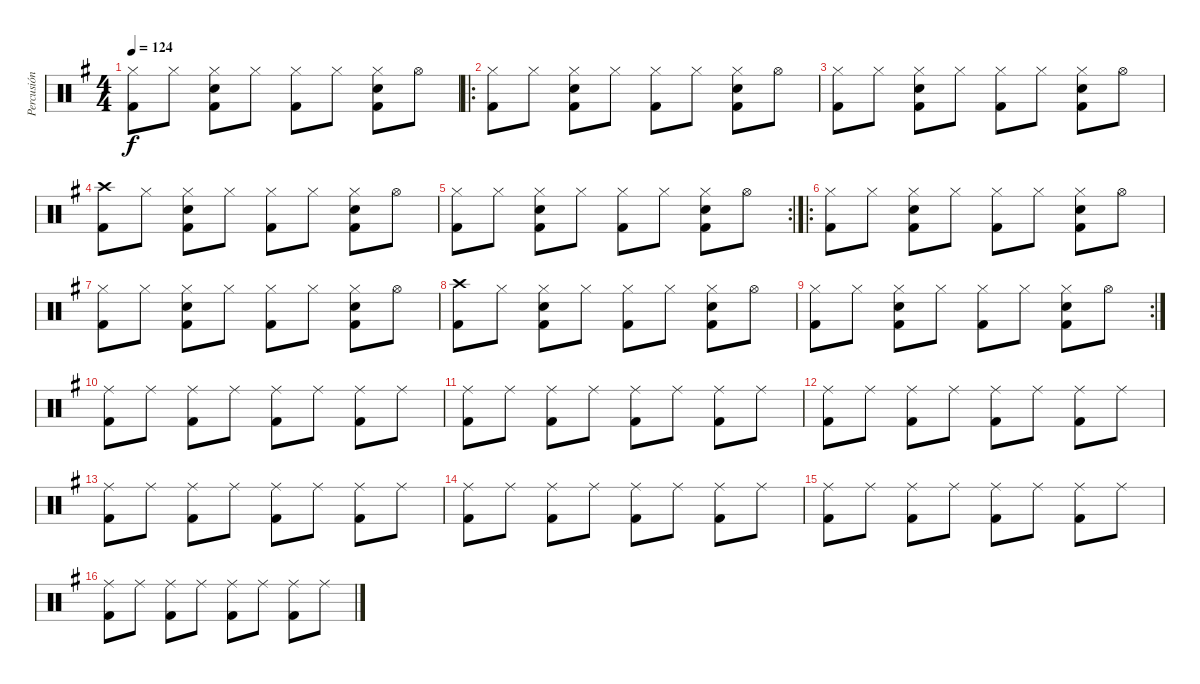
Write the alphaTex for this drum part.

\track ("Percusión" "Percusión") {instrument percussion}
\staff {score}
\articulation defaults
\ts (4 4)
\tempo 124
\clef neutral
\ks g
("Hi-Hat (closed)" "Kick (hit) 2").8{dy f} "Hi-Hat (closed)".8 ("Hi-Hat (closed)" "Electric Snare (hit)" "Kick (hit) 2").8 "Hi-Hat (closed)".8 ("Hi-Hat (closed)" "Kick (hit) 2").8 "Hi-Hat (closed)".8 ("Hi-Hat (closed)" "Electric Snare (hit)" "Kick (hit) 2").8 "Hi-Hat (open)".8 |
\ro
("Hi-Hat (closed)" "Kick (hit) 2").8 "Hi-Hat (closed)".8 ("Hi-Hat (closed)" "Electric Snare (hit)" "Kick (hit) 2").8 "Hi-Hat (closed)".8 ("Hi-Hat (closed)" "Kick (hit) 2").8 "Hi-Hat (closed)".8 ("Hi-Hat (closed)" "Electric Snare (hit)" "Kick (hit) 2").8 "Hi-Hat (open)".8 |
("Hi-Hat (closed)" "Kick (hit) 2").8 "Hi-Hat (closed)".8 ("Hi-Hat (closed)" "Electric Snare (hit)" "Kick (hit) 2").8 "Hi-Hat (closed)".8 ("Hi-Hat (closed)" "Kick (hit) 2").8 "Hi-Hat (closed)".8 ("Hi-Hat (closed)" "Electric Snare (hit)" "Kick (hit) 2").8 "Hi-Hat (open)".8 |
("Crash high (hit)" "Kick (hit) 2").8 "Hi-Hat (closed)".8 ("Hi-Hat (closed)" "Electric Snare (hit)" "Kick (hit) 2").8 "Hi-Hat (closed)".8 ("Hi-Hat (closed)" "Kick (hit) 2").8 "Hi-Hat (closed)".8 ("Hi-Hat (closed)" "Electric Snare (hit)" "Kick (hit) 2").8 "Hi-Hat (open)".8 |
\rc 2
("Hi-Hat (closed)" "Kick (hit) 2").8 "Hi-Hat (closed)".8 ("Hi-Hat (closed)" "Electric Snare (hit)" "Kick (hit) 2").8 "Hi-Hat (closed)".8 ("Hi-Hat (closed)" "Kick (hit) 2").8 "Hi-Hat (closed)".8 ("Hi-Hat (closed)" "Electric Snare (hit)" "Kick (hit) 2").8 "Hi-Hat (open)".8 |
\ro
("Hi-Hat (closed)" "Kick (hit) 2").8 "Hi-Hat (closed)".8 ("Hi-Hat (closed)" "Electric Snare (hit)" "Kick (hit) 2").8 "Hi-Hat (closed)".8 ("Hi-Hat (closed)" "Kick (hit) 2").8 "Hi-Hat (closed)".8 ("Hi-Hat (closed)" "Electric Snare (hit)" "Kick (hit) 2").8 "Hi-Hat (open)".8 |
("Hi-Hat (closed)" "Kick (hit) 2").8 "Hi-Hat (closed)".8 ("Hi-Hat (closed)" "Electric Snare (hit)" "Kick (hit) 2").8 "Hi-Hat (closed)".8 ("Hi-Hat (closed)" "Kick (hit) 2").8 "Hi-Hat (closed)".8 ("Hi-Hat (closed)" "Electric Snare (hit)" "Kick (hit) 2").8 "Hi-Hat (open)".8 |
("Crash high (hit)" "Kick (hit) 2").8 "Hi-Hat (closed)".8 ("Hi-Hat (closed)" "Electric Snare (hit)" "Kick (hit) 2").8 "Hi-Hat (closed)".8 ("Hi-Hat (closed)" "Kick (hit) 2").8 "Hi-Hat (closed)".8 ("Hi-Hat (closed)" "Electric Snare (hit)" "Kick (hit) 2").8 "Hi-Hat (open)".8 |
\rc 2
("Hi-Hat (closed)" "Kick (hit) 2").8 "Hi-Hat (closed)".8 ("Hi-Hat (closed)" "Electric Snare (hit)" "Kick (hit) 2").8 "Hi-Hat (closed)".8 ("Hi-Hat (closed)" "Kick (hit) 2").8 "Hi-Hat (closed)".8 ("Hi-Hat (closed)" "Electric Snare (hit)" "Kick (hit) 2").8 "Hi-Hat (open)".8 |
("Ride (middle)" "Kick (hit) 2").8 "Ride (middle)".8 ("Ride (middle)" "Kick (hit) 2").8 "Ride (middle)".8 ("Ride (middle)" "Kick (hit) 2").8 "Ride (middle)".8 ("Ride (middle)" "Kick (hit) 2").8 "Ride (middle)".8 |
("Ride (middle)" "Kick (hit) 2").8 "Ride (middle)".8 ("Ride (middle)" "Kick (hit) 2").8 "Ride (middle)".8 ("Ride (middle)" "Kick (hit) 2").8 "Ride (middle)".8 ("Ride (middle)" "Kick (hit) 2").8 "Ride (middle)".8 |
("Ride (middle)" "Kick (hit) 2").8 "Ride (middle)".8 ("Ride (middle)" "Kick (hit) 2").8 "Ride (middle)".8 ("Ride (middle)" "Kick (hit) 2").8 "Ride (middle)".8 ("Ride (middle)" "Kick (hit) 2").8 "Ride (middle)".8 |
("Ride (middle)" "Kick (hit) 2").8 "Ride (middle)".8 ("Ride (middle)" "Kick (hit) 2").8 "Ride (middle)".8 ("Ride (middle)" "Kick (hit) 2").8 "Ride (middle)".8 ("Ride (middle)" "Kick (hit) 2").8 "Ride (middle)".8 |
("Ride (middle)" "Kick (hit) 2").8 "Ride (middle)".8 ("Ride (middle)" "Kick (hit) 2").8 "Ride (middle)".8 ("Ride (middle)" "Kick (hit) 2").8 "Ride (middle)".8 ("Ride (middle)" "Kick (hit) 2").8 "Ride (middle)".8 |
("Ride (middle)" "Kick (hit) 2").8 "Ride (middle)".8 ("Ride (middle)" "Kick (hit) 2").8 "Ride (middle)".8 ("Ride (middle)" "Kick (hit) 2").8 "Ride (middle)".8 ("Ride (middle)" "Kick (hit) 2").8 "Ride (middle)".8 |
("Ride (middle)" "Kick (hit) 2").8 "Ride (middle)".8 ("Ride (middle)" "Kick (hit) 2").8 "Ride (middle)".8 ("Ride (middle)" "Kick (hit) 2").8 "Ride (middle)".8 ("Ride (middle)" "Kick (hit) 2").8 "Ride (middle)".8
